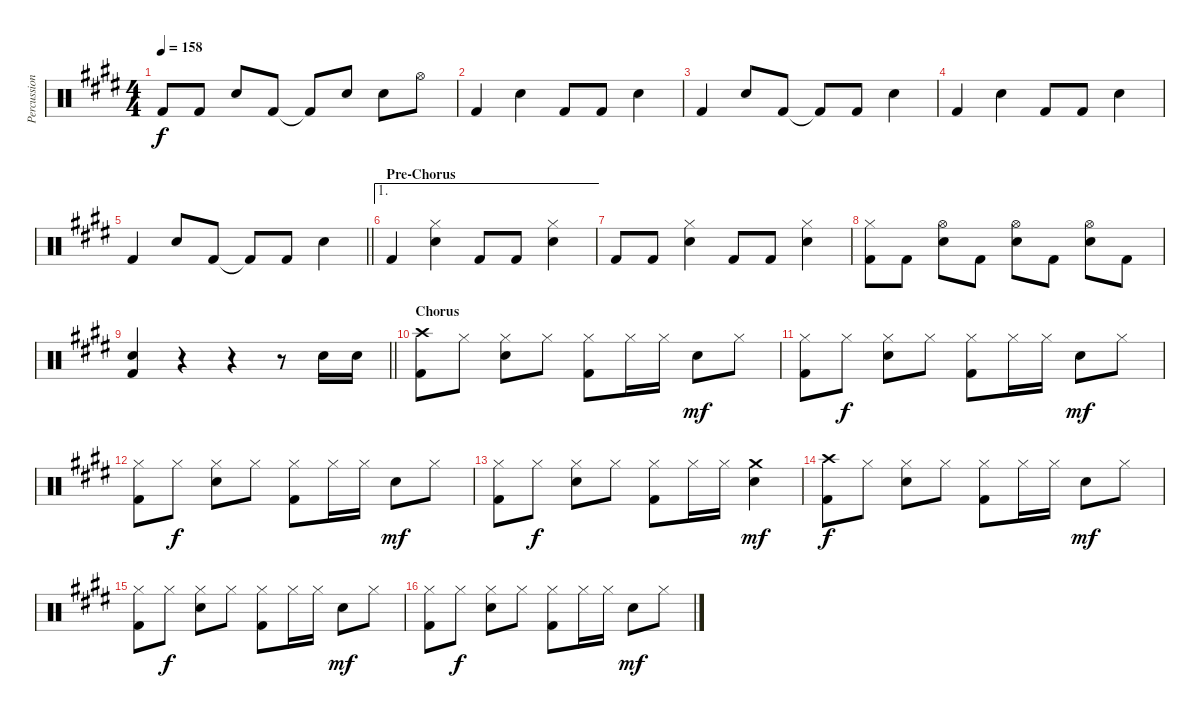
\track ("Percussion" "Percussion") {instrument percussion}
\staff {score}
\articulation defaults
\ts (4 4)
\tempo 158
\clef neutral
\ks e "Kick (hit) 2".8{dy f} "Kick (hit) 2".8 "Snare (hit) 2".8 "Kick (hit) 2".8 "Kick (hit) 2"{t}.8 "Snare (hit) 2".8 "Snare (hit) 2".8 "Hi-Hat (open)".8
|
"Kick (hit) 2".4 "Snare (hit) 2".4 "Kick (hit) 2".8 "Kick (hit) 2".8 "Snare (hit) 2".4 |
"Kick (hit) 2".4 "Snare (hit) 2".8 "Kick (hit) 2".8 "Kick (hit) 2"{t}.8 "Kick (hit) 2".8 "Snare (hit) 2".4 |
"Kick (hit) 2".4 "Snare (hit) 2".4 "Kick (hit) 2".8 "Kick (hit) 2".8 "Snare (hit) 2".4 |
\barLineRight lightlight "Kick (hit) 2".4 "Snare (hit) 2".8 "Kick (hit) 2".8 "Kick (hit) 2"{t}.8 "Kick (hit) 2".8 "Snare (hit) 2".4
|
\ae 1
\section ("" "Pre-Chorus")
"Kick (hit) 2".4 ("Hi-Hat (closed)" "Snare (hit) 2").4 "Kick (hit) 2".8 "Kick (hit) 2".8 ("Hi-Hat (closed)" "Snare (hit) 2").4 |
"Kick (hit) 2".8 "Kick (hit) 2".8 ("Hi-Hat (closed)" "Snare (hit) 2").4 "Kick (hit) 2".8 "Kick (hit) 2".8 ("Hi-Hat (closed)" "Snare (hit) 2").4 |
("Hi-Hat (closed)" "Kick (hit) 2").8 "Kick (hit) 2".8 ("Hi-Hat (open)" "Snare (hit) 2").8 "Kick (hit) 2".8 ("Hi-Hat (open)" "Snare (hit) 2").8 "Kick (hit) 2".8 ("Hi-Hat (open)" "Snare (hit) 2").8 "Kick (hit) 2".8 |
\barLineRight lightlight
("Snare (hit) 2" "Kick (hit) 2").4 r.4 r.4 r.8 "Snare (hit) 2".16 "Snare (hit) 2".16 |
\section ("" "Chorus")
("Crash high (hit)" "Kick (hit) 2").8 "Hi-Hat (closed)".8 ("Hi-Hat (closed)" "Snare (hit) 2").8 "Hi-Hat (closed)".8 ("Hi-Hat (closed)" "Kick (hit) 2").8 "Hi-Hat (closed)".16 "Hi-Hat (closed)".16 "Snare (hit) 2".8{dy mf} "Hi-Hat (closed)".8 |
("Hi-Hat (closed)" "Kick (hit) 2").8 "Hi-Hat (closed)".8{dy f} ("Hi-Hat (closed)" "Snare (hit) 2").8 "Hi-Hat (closed)".8 ("Hi-Hat (closed)" "Kick (hit) 2").8 "Hi-Hat (closed)".16 "Hi-Hat (closed)".16 "Snare (hit) 2".8{dy mf} "Hi-Hat (closed)".8 |
("Hi-Hat (closed)" "Kick (hit) 2").8 "Hi-Hat (closed)".8{dy f} ("Hi-Hat (closed)" "Snare (hit) 2").8 "Hi-Hat (closed)".8 ("Hi-Hat (closed)" "Kick (hit) 2").8 "Hi-Hat (closed)".16 "Hi-Hat (closed)".16 "Snare (hit) 2".8{dy mf} "Hi-Hat (closed)".8 |
("Hi-Hat (closed)" "Kick (hit) 2").8 "Hi-Hat (closed)".8{dy f} ("Hi-Hat (closed)" "Snare (hit) 2").8 "Hi-Hat (closed)".8 ("Hi-Hat (closed)" "Kick (hit) 2").8 "Hi-Hat (closed)".16 "Hi-Hat (closed)".16 ("Crash medium (hit)" "Snare (hit) 2").4{dy mf} |
("Crash high (hit)" "Kick (hit) 2").8{dy f} "Hi-Hat (closed)".8 ("Hi-Hat (closed)" "Snare (hit) 2").8 "Hi-Hat (closed)".8 ("Hi-Hat (closed)" "Kick (hit) 2").8 "Hi-Hat (closed)".16 "Hi-Hat (closed)".16 "Snare (hit) 2".8{dy mf} "Hi-Hat (closed)".8 |
("Hi-Hat (closed)" "Kick (hit) 2").8 "Hi-Hat (closed)".8{dy f} ("Hi-Hat (closed)" "Snare (hit) 2").8 "Hi-Hat (closed)".8 ("Hi-Hat (closed)" "Kick (hit) 2").8 "Hi-Hat (closed)".16 "Hi-Hat (closed)".16 "Snare (hit) 2".8{dy mf} "Hi-Hat (closed)".8 |
("Hi-Hat (closed)" "Kick (hit) 2").8 "Hi-Hat (closed)".8{dy f} ("Hi-Hat (closed)" "Snare (hit) 2").8 "Hi-Hat (closed)".8 ("Hi-Hat (closed)" "Kick (hit) 2").8 "Hi-Hat (closed)".16 "Hi-Hat (closed)".16 "Snare (hit) 2".8{dy mf} "Hi-Hat (closed)".8
